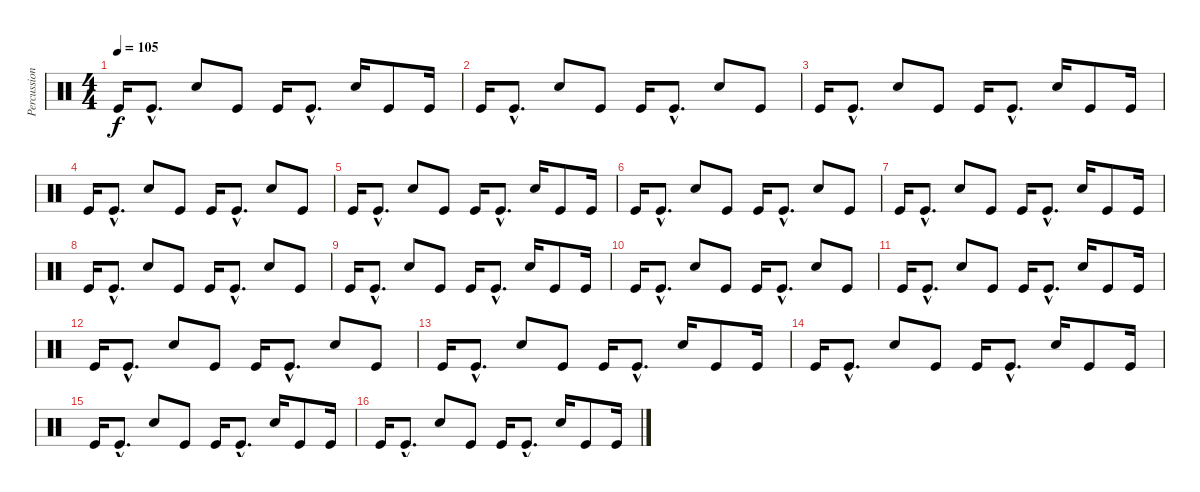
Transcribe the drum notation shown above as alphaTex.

\track ("Percussion" "Percussion") {instrument percussion}
\staff {score}
\articulation defaults
\ts (4 4)
\tempo 105
\clef neutral
\ks c "Kick (hit)".16{dy f} "Kick (hit)"{hac}.8{d} "Electric Snare (hit)".8 "Kick (hit)".8 "Kick (hit)".16 "Kick (hit)"{hac}.8{d} "Electric Snare (hit)".16 "Kick (hit)".8 "Kick (hit)".16
|
"Kick (hit)".16 "Kick (hit)"{hac}.8{d} "Electric Snare (hit)".8 "Kick (hit)".8 "Kick (hit)".16 "Kick (hit)"{hac}.8{d} "Electric Snare (hit)".8 "Kick (hit)".8 |
"Kick (hit)".16 "Kick (hit)"{hac}.8{d} "Electric Snare (hit)".8 "Kick (hit)".8 "Kick (hit)".16 "Kick (hit)"{hac}.8{d} "Electric Snare (hit)".16 "Kick (hit)".8 "Kick (hit)".16 |
"Kick (hit)".16 "Kick (hit)"{hac}.8{d} "Electric Snare (hit)".8 "Kick (hit)".8 "Kick (hit)".16 "Kick (hit)"{hac}.8{d} "Electric Snare (hit)".8 "Kick (hit)".8 |
"Kick (hit)".16 "Kick (hit)"{hac}.8{d} "Electric Snare (hit)".8 "Kick (hit)".8 "Kick (hit)".16 "Kick (hit)"{hac}.8{d} "Electric Snare (hit)".16 "Kick (hit)".8 "Kick (hit)".16 |
"Kick (hit)".16 "Kick (hit)"{hac}.8{d} "Electric Snare (hit)".8 "Kick (hit)".8 "Kick (hit)".16 "Kick (hit)"{hac}.8{d} "Electric Snare (hit)".8 "Kick (hit)".8 |
"Kick (hit)".16 "Kick (hit)"{hac}.8{d} "Electric Snare (hit)".8 "Kick (hit)".8 "Kick (hit)".16 "Kick (hit)"{hac}.8{d} "Electric Snare (hit)".16 "Kick (hit)".8 "Kick (hit)".16 |
"Kick (hit)".16 "Kick (hit)"{hac}.8{d} "Electric Snare (hit)".8 "Kick (hit)".8 "Kick (hit)".16 "Kick (hit)"{hac}.8{d} "Electric Snare (hit)".8 "Kick (hit)".8 |
"Kick (hit)".16 "Kick (hit)"{hac}.8{d} "Electric Snare (hit)".8 "Kick (hit)".8 "Kick (hit)".16 "Kick (hit)"{hac}.8{d} "Electric Snare (hit)".16 "Kick (hit)".8 "Kick (hit)".16 |
"Kick (hit)".16 "Kick (hit)"{hac}.8{d} "Electric Snare (hit)".8 "Kick (hit)".8 "Kick (hit)".16 "Kick (hit)"{hac}.8{d} "Electric Snare (hit)".8 "Kick (hit)".8 |
"Kick (hit)".16 "Kick (hit)"{hac}.8{d} "Electric Snare (hit)".8 "Kick (hit)".8 "Kick (hit)".16 "Kick (hit)"{hac}.8{d} "Electric Snare (hit)".16 "Kick (hit)".8 "Kick (hit)".16 |
"Kick (hit)".16 "Kick (hit)"{hac}.8{d} "Electric Snare (hit)".8 "Kick (hit)".8 "Kick (hit)".16 "Kick (hit)"{hac}.8{d} "Electric Snare (hit)".8 "Kick (hit)".8 |
"Kick (hit)".16 "Kick (hit)"{hac}.8{d} "Electric Snare (hit)".8 "Kick (hit)".8 "Kick (hit)".16 "Kick (hit)"{hac}.8{d} "Electric Snare (hit)".16 "Kick (hit)".8 "Kick (hit)".16 |
"Kick (hit)".16 "Kick (hit)"{hac}.8{d} "Electric Snare (hit)".8 "Kick (hit)".8 "Kick (hit)".16 "Kick (hit)"{hac}.8{d} "Electric Snare (hit)".16 "Kick (hit)".8 "Kick (hit)".16 |
"Kick (hit)".16 "Kick (hit)"{hac}.8{d} "Electric Snare (hit)".8 "Kick (hit)".8 "Kick (hit)".16 "Kick (hit)"{hac}.8{d} "Electric Snare (hit)".16 "Kick (hit)".8 "Kick (hit)".16 |
"Kick (hit)".16 "Kick (hit)"{hac}.8{d} "Electric Snare (hit)".8 "Kick (hit)".8 "Kick (hit)".16 "Kick (hit)"{hac}.8{d} "Electric Snare (hit)".16 "Kick (hit)".8 "Kick (hit)".16
